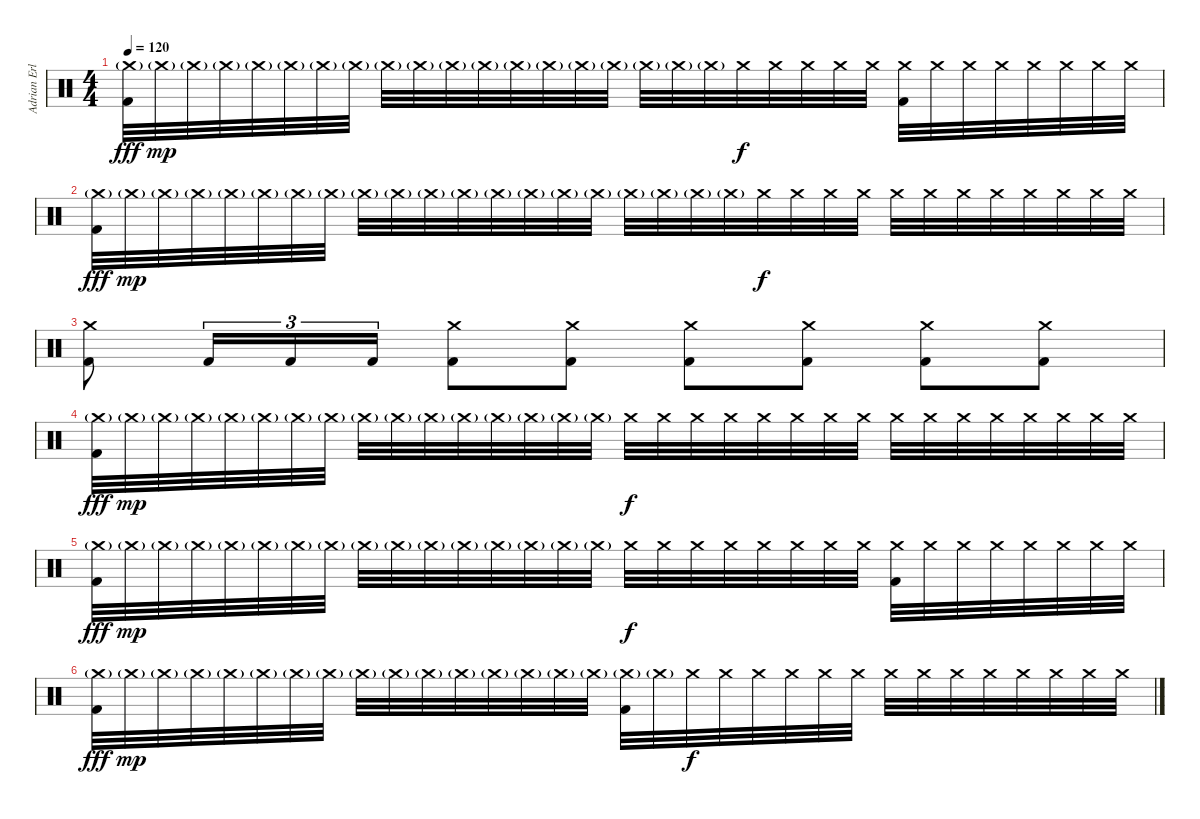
\track ("Adrian Erlandsson" "Adrian Erl") {instrument percussion}
\staff {score}
\articulation defaults
\ts (4 4)
\tempo 120
\clef neutral
\ks c
("Crash medium (hit)"{g} "Kick (hit) 2").32{dy fff} "Crash medium (hit)"{g}.32{dy mp} "Crash medium (hit)"{g}.32 "Crash medium (hit)"{g}.32 "Crash medium (hit)"{g}.32 "Crash medium (hit)"{g}.32 "Crash medium (hit)"{g}.32 "Crash medium (hit)"{g}.32 "Crash medium (hit)"{g}.32 "Crash medium (hit)"{g}.32 "Crash medium (hit)"{g}.32 "Crash medium (hit)"{g}.32 "Crash medium (hit)"{g}.32 "Crash medium (hit)"{g}.32 "Crash medium (hit)"{g}.32 "Crash medium (hit)"{g}.32 "Crash medium (hit)"{g}.32 "Crash medium (hit)"{g}.32 "Crash medium (hit)"{g}.32 "Crash medium (hit)".32{dy f} "Crash medium (hit)".32 "Crash medium (hit)".32 "Crash medium (hit)".32 "Crash medium (hit)".32 ("Crash medium (hit)" "Kick (hit) 2").32 "Crash medium (hit)".32 "Crash medium (hit)".32 "Crash medium (hit)".32 "Crash medium (hit)".32 "Crash medium (hit)".32 "Crash medium (hit)".32 "Crash medium (hit)".32 |
("Crash medium (hit)"{g} "Kick (hit) 2").32{dy fff} "Crash medium (hit)"{g}.32{dy mp} "Crash medium (hit)"{g}.32 "Crash medium (hit)"{g}.32 "Crash medium (hit)"{g}.32 "Crash medium (hit)"{g}.32 "Crash medium (hit)"{g}.32 "Crash medium (hit)"{g}.32 "Crash medium (hit)"{g}.32 "Crash medium (hit)"{g}.32 "Crash medium (hit)"{g}.32 "Crash medium (hit)"{g}.32 "Crash medium (hit)"{g}.32 "Crash medium (hit)"{g}.32 "Crash medium (hit)"{g}.32 "Crash medium (hit)"{g}.32 "Crash medium (hit)"{g}.32 "Crash medium (hit)"{g}.32 "Crash medium (hit)"{g}.32 "Crash medium (hit)"{g}.32 "Crash medium (hit)".32{dy f} "Crash medium (hit)".32 "Crash medium (hit)".32 "Crash medium (hit)".32 "Crash medium (hit)".32 "Crash medium (hit)".32 "Crash medium (hit)".32 "Crash medium (hit)".32 "Crash medium (hit)".32 "Crash medium (hit)".32 "Crash medium (hit)".32 "Crash medium (hit)".32 |
("Crash medium (hit)" "Kick (hit) 2").8 "Kick (hit) 2".16{tu (3 2)} "Kick (hit) 2".16{tu (3 2)} "Kick (hit) 2".16{tu (3 2)} ("Crash medium (hit)" "Kick (hit) 2").8 ("Crash medium (hit)" "Kick (hit) 2").8 ("Crash medium (hit)" "Kick (hit) 2").8 ("Crash medium (hit)" "Kick (hit) 2").8 ("Crash medium (hit)" "Kick (hit) 2").8 ("Crash medium (hit)" "Kick (hit) 2").8 |
("Crash medium (hit)"{g} "Kick (hit) 2").32{dy fff} "Crash medium (hit)"{g}.32{dy mp} "Crash medium (hit)"{g}.32 "Crash medium (hit)"{g}.32 "Crash medium (hit)"{g}.32 "Crash medium (hit)"{g}.32 "Crash medium (hit)"{g}.32 "Crash medium (hit)"{g}.32 "Crash medium (hit)"{g}.32 "Crash medium (hit)"{g}.32 "Crash medium (hit)"{g}.32 "Crash medium (hit)"{g}.32 "Crash medium (hit)"{g}.32 "Crash medium (hit)"{g}.32 "Crash medium (hit)"{g}.32 "Crash medium (hit)"{g}.32 "Crash medium (hit)".32{dy f} "Crash medium (hit)".32 "Crash medium (hit)".32 "Crash medium (hit)".32 "Crash medium (hit)".32 "Crash medium (hit)".32 "Crash medium (hit)".32 "Crash medium (hit)".32 "Crash medium (hit)".32 "Crash medium (hit)".32 "Crash medium (hit)".32 "Crash medium (hit)".32 "Crash medium (hit)".32 "Crash medium (hit)".32 "Crash medium (hit)".32 "Crash medium (hit)".32 |
("Crash medium (hit)"{g} "Kick (hit) 2").32{dy fff} "Crash medium (hit)"{g}.32{dy mp} "Crash medium (hit)"{g}.32 "Crash medium (hit)"{g}.32 "Crash medium (hit)"{g}.32 "Crash medium (hit)"{g}.32 "Crash medium (hit)"{g}.32 "Crash medium (hit)"{g}.32 "Crash medium (hit)"{g}.32 "Crash medium (hit)"{g}.32 "Crash medium (hit)"{g}.32 "Crash medium (hit)"{g}.32 "Crash medium (hit)"{g}.32 "Crash medium (hit)"{g}.32 "Crash medium (hit)"{g}.32 "Crash medium (hit)"{g}.32 "Crash medium (hit)".32{dy f} "Crash medium (hit)".32 "Crash medium (hit)".32 "Crash medium (hit)".32 "Crash medium (hit)".32 "Crash medium (hit)".32 "Crash medium (hit)".32 "Crash medium (hit)".32 ("Crash medium (hit)" "Kick (hit) 2").32 "Crash medium (hit)".32 "Crash medium (hit)".32 "Crash medium (hit)".32 "Crash medium (hit)".32 "Crash medium (hit)".32 "Crash medium (hit)".32 "Crash medium (hit)".32 |
("Crash medium (hit)"{g} "Kick (hit) 2").32{dy fff} "Crash medium (hit)"{g}.32{dy mp} "Crash medium (hit)"{g}.32 "Crash medium (hit)"{g}.32 "Crash medium (hit)"{g}.32 "Crash medium (hit)"{g}.32 "Crash medium (hit)"{g}.32 "Crash medium (hit)"{g}.32 "Crash medium (hit)"{g}.32 "Crash medium (hit)"{g}.32 "Crash medium (hit)"{g}.32 "Crash medium (hit)"{g}.32 "Crash medium (hit)"{g}.32 "Crash medium (hit)"{g}.32 "Crash medium (hit)"{g}.32 "Crash medium (hit)"{g}.32 ("Crash medium (hit)"{g} "Kick (hit) 2").32 "Crash medium (hit)"{g}.32 "Crash medium (hit)".32{dy f} "Crash medium (hit)".32 "Crash medium (hit)".32 "Crash medium (hit)".32 "Crash medium (hit)".32 "Crash medium (hit)".32 "Crash medium (hit)".32 "Crash medium (hit)".32 "Crash medium (hit)".32 "Crash medium (hit)".32 "Crash medium (hit)".32 "Crash medium (hit)".32 "Crash medium (hit)".32 "Crash medium (hit)".32
